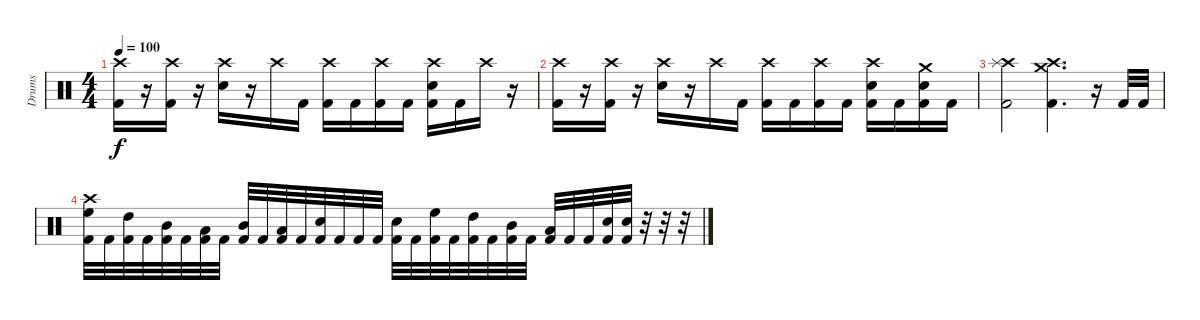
\track ("Drums" "Drums") {instrument percussion}
\staff {score}
\articulation defaults
\ts (4 4)
\tempo 100
\clef neutral
\ks c
("Crash high (hit)" "Kick (hit) 2").16{dy f} r.16 ("Crash high (hit)" "Kick (hit) 2").16 r.16 ("Crash high (hit)" "Snare (hit) 2").16 r.16 "Crash high (hit)".16 "Kick (hit) 2".16 ("Crash high (hit)" "Kick (hit) 2").16 "Kick (hit) 2".16 ("Crash high (hit)" "Kick (hit) 2").16 "Kick (hit) 2".16 ("Crash high (hit)" "Snare (hit) 2" "Kick (hit) 2").16 "Kick (hit) 2".16 "Crash high (hit)".16 r.16 |
("Crash high (hit)" "Kick (hit) 2").16 r.16 ("Crash high (hit)" "Kick (hit) 2").16 r.16 ("Crash high (hit)" "Snare (hit) 2").16 r.16 "Crash high (hit)".16 "Kick (hit) 2".16 ("Crash high (hit)" "Kick (hit) 2").16 "Kick (hit) 2".16 ("Crash high (hit)" "Kick (hit) 2").16 "Kick (hit) 2".16 ("Crash high (hit)" "Snare (hit) 2" "Kick (hit) 2").16 "Kick (hit) 2".16 ("Crash medium (hit)" "Snare (hit) 2" "Kick (hit) 2").16 "Kick (hit) 2".16 |
("Crash high (hit)" "Splash (hit)" "Kick (hit) 2").2{balance 0} ("Crash high (hit)" "Crash medium (hit)" "Kick (hit) 2").4{d balance 16} r.16 "Kick (hit) 2".32{volume 16 balance 8} "Kick (hit) 2".32 |
("Crash high (hit)" "High Floor Tom (hit)" "Kick (hit) 2").32 "Kick (hit) 2".32 ("High Tom (hit)" "Kick (hit) 2").32 "Kick (hit) 2".32 ("Mid Tom (hit)" "Kick (hit) 2").32 "Kick (hit) 2".32 ("Low Tom (hit)" "Kick (hit) 2").32 "Kick (hit) 2".32 ("Mid Tom (hit)" "Kick (hit) 2").32 "Kick (hit) 2".32 ("Low Tom (hit)" "Kick (hit) 2").32 "Kick (hit) 2".32 ("Snare (hit) 2" "Kick (hit) 2").32 "Kick (hit) 2".32 "Kick (hit) 2".32 "Kick (hit) 2".32 ("Snare (hit) 2" "Kick (hit) 2").32 "Kick (hit) 2".32 ("High Floor Tom (hit)" "Kick (hit) 2").32 "Kick (hit) 2".32 ("High Tom (hit)" "Kick (hit) 2").32 "Kick (hit) 2".32 ("Mid Tom (hit)" "Kick (hit) 2").32 "Kick (hit) 2".32 ("Low Tom (hit)" "Kick (hit) 2").32 "Kick (hit) 2".32 "Kick (hit) 2".32 ("Snare (hit) 2" "Kick (hit) 2").32 ("Snare (hit) 2" "Kick (hit) 2").32 r.32 r.32 r.32
